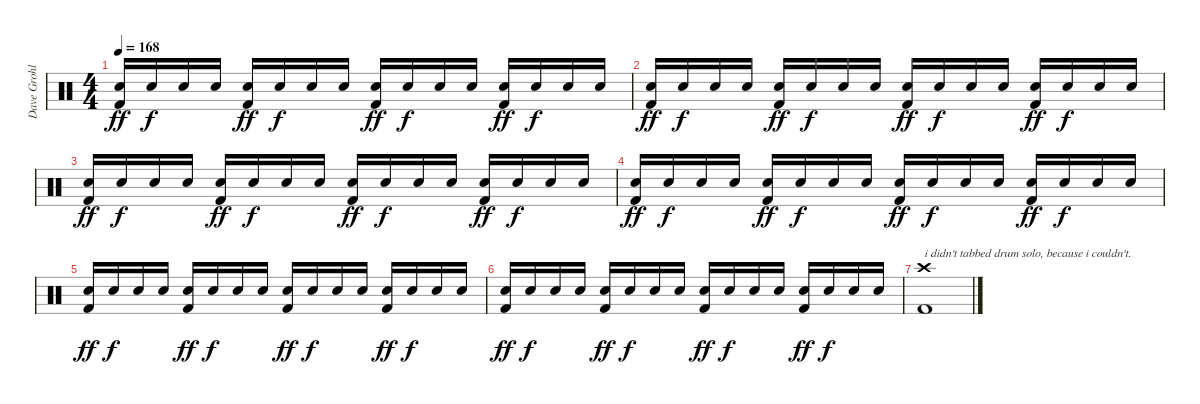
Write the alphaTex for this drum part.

\track ("Dave Grohl - Drums" "Dave Grohl") {instrument percussion}
\staff {score}
\articulation defaults
\ts (4 4)
\tempo 168
\clef neutral
\ks c
("Electric Snare (hit)" "Kick (hit) 2").16{dy ff} "Electric Snare (hit)".16{dy f} "Electric Snare (hit)".16 "Electric Snare (hit)".16 ("Electric Snare (hit)" "Kick (hit) 2").16{dy ff} "Electric Snare (hit)".16{dy f} "Electric Snare (hit)".16 "Electric Snare (hit)".16 ("Electric Snare (hit)" "Kick (hit) 2").16{dy ff} "Electric Snare (hit)".16{dy f} "Electric Snare (hit)".16 "Electric Snare (hit)".16 ("Electric Snare (hit)" "Kick (hit) 2").16{dy ff} "Electric Snare (hit)".16{dy f} "Electric Snare (hit)".16 "Electric Snare (hit)".16 |
("Electric Snare (hit)" "Kick (hit) 2").16{dy ff} "Electric Snare (hit)".16{dy f} "Electric Snare (hit)".16 "Electric Snare (hit)".16 ("Electric Snare (hit)" "Kick (hit) 2").16{dy ff} "Electric Snare (hit)".16{dy f} "Electric Snare (hit)".16 "Electric Snare (hit)".16 ("Electric Snare (hit)" "Kick (hit) 2").16{dy ff} "Electric Snare (hit)".16{dy f} "Electric Snare (hit)".16 "Electric Snare (hit)".16 ("Electric Snare (hit)" "Kick (hit) 2").16{dy ff} "Electric Snare (hit)".16{dy f} "Electric Snare (hit)".16 "Electric Snare (hit)".16 |
("Electric Snare (hit)" "Kick (hit) 2").16{dy ff} "Electric Snare (hit)".16{dy f} "Electric Snare (hit)".16 "Electric Snare (hit)".16 ("Electric Snare (hit)" "Kick (hit) 2").16{dy ff} "Electric Snare (hit)".16{dy f} "Electric Snare (hit)".16 "Electric Snare (hit)".16 ("Electric Snare (hit)" "Kick (hit) 2").16{dy ff} "Electric Snare (hit)".16{dy f} "Electric Snare (hit)".16 "Electric Snare (hit)".16 ("Electric Snare (hit)" "Kick (hit) 2").16{dy ff} "Electric Snare (hit)".16{dy f} "Electric Snare (hit)".16 "Electric Snare (hit)".16 |
("Electric Snare (hit)" "Kick (hit) 2").16{dy ff} "Electric Snare (hit)".16{dy f} "Electric Snare (hit)".16 "Electric Snare (hit)".16 ("Electric Snare (hit)" "Kick (hit) 2").16{dy ff} "Electric Snare (hit)".16{dy f} "Electric Snare (hit)".16 "Electric Snare (hit)".16 ("Electric Snare (hit)" "Kick (hit) 2").16{dy ff} "Electric Snare (hit)".16{dy f} "Electric Snare (hit)".16 "Electric Snare (hit)".16 ("Electric Snare (hit)" "Kick (hit) 2").16{dy ff} "Electric Snare (hit)".16{dy f} "Electric Snare (hit)".16 "Electric Snare (hit)".16 |
("Electric Snare (hit)" "Kick (hit) 2").16{dy ff} "Electric Snare (hit)".16{dy f} "Electric Snare (hit)".16 "Electric Snare (hit)".16 ("Electric Snare (hit)" "Kick (hit) 2").16{dy ff} "Electric Snare (hit)".16{dy f} "Electric Snare (hit)".16 "Electric Snare (hit)".16 ("Electric Snare (hit)" "Kick (hit) 2").16{dy ff} "Electric Snare (hit)".16{dy f} "Electric Snare (hit)".16 "Electric Snare (hit)".16 ("Electric Snare (hit)" "Kick (hit) 2").16{dy ff} "Electric Snare (hit)".16{dy f} "Electric Snare (hit)".16 "Electric Snare (hit)".16 |
("Electric Snare (hit)" "Kick (hit) 2").16{dy ff} "Electric Snare (hit)".16{dy f} "Electric Snare (hit)".16 "Electric Snare (hit)".16 ("Electric Snare (hit)" "Kick (hit) 2").16{dy ff} "Electric Snare (hit)".16{dy f} "Electric Snare (hit)".16 "Electric Snare (hit)".16 ("Electric Snare (hit)" "Kick (hit) 2").16{dy ff} "Electric Snare (hit)".16{dy f} "Electric Snare (hit)".16 "Electric Snare (hit)".16 ("Electric Snare (hit)" "Kick (hit) 2").16{dy ff} "Electric Snare (hit)".16{dy f} "Electric Snare (hit)".16 "Electric Snare (hit)".16 |
("Crash high (hit)" "Kick (hit) 2").1{txt "i didn't tabbed drum solo, because i couldn't."}
